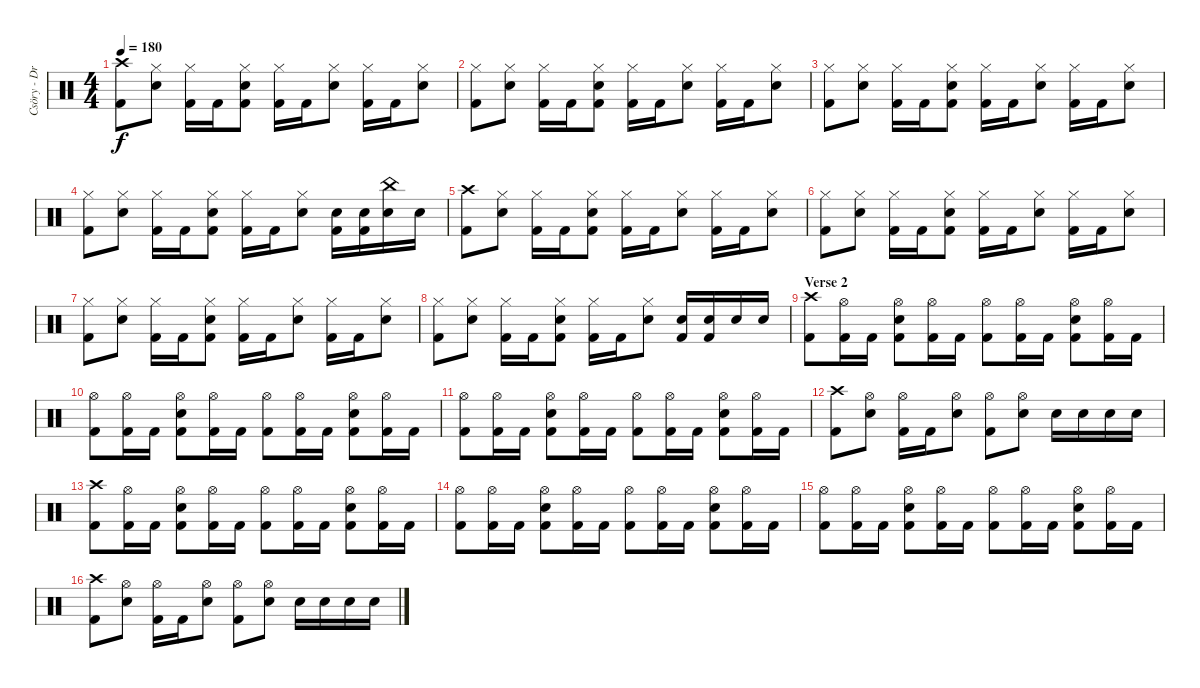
\track ("Csöry - DrumZ" "Csöry - Dr") {instrument percussion}
\staff {score}
\articulation defaults
\ts (4 4)
\tempo 180
\clef neutral
\ks c
("Crash high (hit)" "Kick (hit) 2").8{dy f} ("Hi-Hat (closed)" "Snare (hit) 2").8 ("Hi-Hat (closed)" "Kick (hit) 2").16 "Kick (hit) 2".16 ("Hi-Hat (closed)" "Snare (hit) 2" "Kick (hit) 2").8 ("Hi-Hat (closed)" "Kick (hit) 2").16 "Kick (hit) 2".16 ("Hi-Hat (closed)" "Snare (hit) 2").8 ("Hi-Hat (closed)" "Kick (hit) 2").16 "Kick (hit) 2".16 ("Hi-Hat (closed)" "Snare (hit) 2").8 |
("Hi-Hat (closed)" "Kick (hit) 2").8 ("Hi-Hat (closed)" "Snare (hit) 2").8 ("Hi-Hat (closed)" "Kick (hit) 2").16 "Kick (hit) 2".16 ("Hi-Hat (closed)" "Snare (hit) 2" "Kick (hit) 2").8 ("Hi-Hat (closed)" "Kick (hit) 2").16 "Kick (hit) 2".16 ("Hi-Hat (closed)" "Snare (hit) 2").8 ("Hi-Hat (closed)" "Kick (hit) 2").16 "Kick (hit) 2".16 ("Hi-Hat (closed)" "Snare (hit) 2").8 |
("Hi-Hat (closed)" "Kick (hit) 2").8 ("Hi-Hat (closed)" "Snare (hit) 2").8 ("Hi-Hat (closed)" "Kick (hit) 2").16 "Kick (hit) 2".16 ("Hi-Hat (closed)" "Snare (hit) 2" "Kick (hit) 2").8 ("Hi-Hat (closed)" "Kick (hit) 2").16 "Kick (hit) 2".16 ("Hi-Hat (closed)" "Snare (hit) 2").8 ("Hi-Hat (closed)" "Kick (hit) 2").16 "Kick (hit) 2".16 ("Hi-Hat (closed)" "Snare (hit) 2").8 |
("Hi-Hat (closed)" "Kick (hit) 2").8 ("Hi-Hat (closed)" "Snare (hit) 2").8 ("Hi-Hat (closed)" "Kick (hit) 2").16 "Kick (hit) 2".16 ("Hi-Hat (closed)" "Snare (hit) 2" "Kick (hit) 2").8 ("Hi-Hat (closed)" "Kick (hit) 2").16 "Kick (hit) 2".16 ("Hi-Hat (closed)" "Snare (hit) 2").8 ("Snare (hit) 2" "Kick (hit) 2").16 ("Snare (hit) 2" "Kick (hit) 2").16 ("China (hit)" "Snare (hit) 2").16 "Snare (hit) 2".16 |
("Crash high (hit)" "Kick (hit) 2").8 ("Hi-Hat (closed)" "Snare (hit) 2").8 ("Hi-Hat (closed)" "Kick (hit) 2").16 "Kick (hit) 2".16 ("Hi-Hat (closed)" "Snare (hit) 2" "Kick (hit) 2").8 ("Hi-Hat (closed)" "Kick (hit) 2").16 "Kick (hit) 2".16 ("Hi-Hat (closed)" "Snare (hit) 2").8 ("Hi-Hat (closed)" "Kick (hit) 2").16 "Kick (hit) 2".16 ("Hi-Hat (closed)" "Snare (hit) 2").8 |
("Hi-Hat (closed)" "Kick (hit) 2").8 ("Hi-Hat (closed)" "Snare (hit) 2").8 ("Hi-Hat (closed)" "Kick (hit) 2").16 "Kick (hit) 2".16 ("Hi-Hat (closed)" "Snare (hit) 2" "Kick (hit) 2").8 ("Hi-Hat (closed)" "Kick (hit) 2").16 "Kick (hit) 2".16 ("Hi-Hat (closed)" "Snare (hit) 2").8 ("Hi-Hat (closed)" "Kick (hit) 2").16 "Kick (hit) 2".16 ("Hi-Hat (closed)" "Snare (hit) 2").8 |
("Hi-Hat (closed)" "Kick (hit) 2").8 ("Hi-Hat (closed)" "Snare (hit) 2").8 ("Hi-Hat (closed)" "Kick (hit) 2").16 "Kick (hit) 2".16 ("Hi-Hat (closed)" "Snare (hit) 2" "Kick (hit) 2").8 ("Hi-Hat (closed)" "Kick (hit) 2").16 "Kick (hit) 2".16 ("Hi-Hat (closed)" "Snare (hit) 2").8 ("Hi-Hat (closed)" "Kick (hit) 2").16 "Kick (hit) 2".16 ("Hi-Hat (closed)" "Snare (hit) 2").8 |
("Hi-Hat (closed)" "Kick (hit) 2").8 ("Hi-Hat (closed)" "Snare (hit) 2").8 ("Hi-Hat (closed)" "Kick (hit) 2").16 "Kick (hit) 2".16 ("Hi-Hat (closed)" "Snare (hit) 2" "Kick (hit) 2").8 ("Hi-Hat (closed)" "Kick (hit) 2").16 "Kick (hit) 2".16 ("Hi-Hat (closed)" "Snare (hit) 2").8 ("Snare (hit) 2" "Kick (hit) 2").16 ("Snare (hit) 2" "Kick (hit) 2").16 "Snare (hit) 2".16 "Snare (hit) 2".16 |
\section ("" "Verse 2")
("Crash high (hit)" "Kick (hit) 2").8 ("Hi-Hat (open)" "Kick (hit) 2").16 "Kick (hit) 2".16 ("Hi-Hat (open)" "Snare (hit) 2" "Kick (hit) 2").8 ("Hi-Hat (open)" "Kick (hit) 2").16 "Kick (hit) 2".16 ("Hi-Hat (open)" "Kick (hit) 2").8 ("Hi-Hat (open)" "Kick (hit) 2").16 "Kick (hit) 2".16 ("Hi-Hat (open)" "Snare (hit) 2" "Kick (hit) 2").8 ("Hi-Hat (open)" "Kick (hit) 2").16 "Kick (hit) 2".16 |
("Hi-Hat (open)" "Kick (hit) 2").8 ("Hi-Hat (open)" "Kick (hit) 2").16 "Kick (hit) 2".16 ("Hi-Hat (open)" "Snare (hit) 2" "Kick (hit) 2").8 ("Hi-Hat (open)" "Kick (hit) 2").16 "Kick (hit) 2".16 ("Hi-Hat (open)" "Kick (hit) 2").8 ("Hi-Hat (open)" "Kick (hit) 2").16 "Kick (hit) 2".16 ("Hi-Hat (open)" "Snare (hit) 2" "Kick (hit) 2").8 ("Hi-Hat (open)" "Kick (hit) 2").16 "Kick (hit) 2".16 |
("Hi-Hat (open)" "Kick (hit) 2").8 ("Hi-Hat (open)" "Kick (hit) 2").16 "Kick (hit) 2".16 ("Hi-Hat (open)" "Snare (hit) 2" "Kick (hit) 2").8 ("Hi-Hat (open)" "Kick (hit) 2").16 "Kick (hit) 2".16 ("Hi-Hat (open)" "Kick (hit) 2").8 ("Hi-Hat (open)" "Kick (hit) 2").16 "Kick (hit) 2".16 ("Hi-Hat (open)" "Snare (hit) 2" "Kick (hit) 2").8 ("Hi-Hat (open)" "Kick (hit) 2").16 "Kick (hit) 2".16 |
("Crash high (hit)" "Kick (hit) 2").8 ("Hi-Hat (open)" "Snare (hit) 2").8 ("Hi-Hat (open)" "Kick (hit) 2").16 "Kick (hit) 2".16 ("Hi-Hat (open)" "Snare (hit) 2").8 ("Hi-Hat (open)" "Kick (hit) 2").8 ("Hi-Hat (open)" "Snare (hit) 2").8 "Snare (hit) 2".16 "Snare (hit) 2".16 "Snare (hit) 2".16 "Snare (hit) 2".16 |
("Crash high (hit)" "Kick (hit) 2").8 ("Hi-Hat (open)" "Kick (hit) 2").16 "Kick (hit) 2".16 ("Hi-Hat (open)" "Snare (hit) 2" "Kick (hit) 2").8 ("Hi-Hat (open)" "Kick (hit) 2").16 "Kick (hit) 2".16 ("Hi-Hat (open)" "Kick (hit) 2").8 ("Hi-Hat (open)" "Kick (hit) 2").16 "Kick (hit) 2".16 ("Hi-Hat (open)" "Snare (hit) 2" "Kick (hit) 2").8 ("Hi-Hat (open)" "Kick (hit) 2").16 "Kick (hit) 2".16 |
("Hi-Hat (open)" "Kick (hit) 2").8 ("Hi-Hat (open)" "Kick (hit) 2").16 "Kick (hit) 2".16 ("Hi-Hat (open)" "Snare (hit) 2" "Kick (hit) 2").8 ("Hi-Hat (open)" "Kick (hit) 2").16 "Kick (hit) 2".16 ("Hi-Hat (open)" "Kick (hit) 2").8 ("Hi-Hat (open)" "Kick (hit) 2").16 "Kick (hit) 2".16 ("Hi-Hat (open)" "Snare (hit) 2" "Kick (hit) 2").8 ("Hi-Hat (open)" "Kick (hit) 2").16 "Kick (hit) 2".16 |
("Hi-Hat (open)" "Kick (hit) 2").8 ("Hi-Hat (open)" "Kick (hit) 2").16 "Kick (hit) 2".16 ("Hi-Hat (open)" "Snare (hit) 2" "Kick (hit) 2").8 ("Hi-Hat (open)" "Kick (hit) 2").16 "Kick (hit) 2".16 ("Hi-Hat (open)" "Kick (hit) 2").8 ("Hi-Hat (open)" "Kick (hit) 2").16 "Kick (hit) 2".16 ("Hi-Hat (open)" "Snare (hit) 2" "Kick (hit) 2").8 ("Hi-Hat (open)" "Kick (hit) 2").16 "Kick (hit) 2".16 |
("Crash high (hit)" "Kick (hit) 2").8 ("Hi-Hat (open)" "Snare (hit) 2").8 ("Hi-Hat (open)" "Kick (hit) 2").16 "Kick (hit) 2".16 ("Hi-Hat (open)" "Snare (hit) 2").8 ("Hi-Hat (open)" "Kick (hit) 2").8 ("Hi-Hat (open)" "Snare (hit) 2").8 "Snare (hit) 2".16 "Snare (hit) 2".16 "Snare (hit) 2".16 "Snare (hit) 2".16
